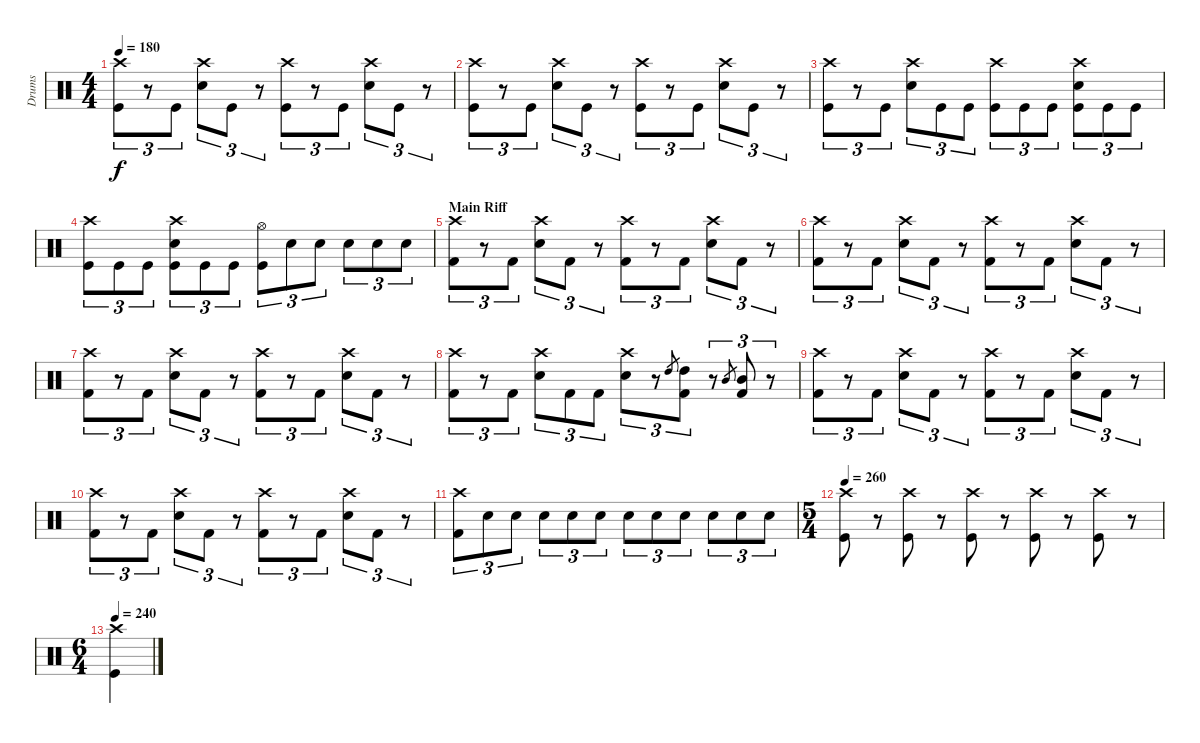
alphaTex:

\track ("Drums" "Drums") {instrument percussion}
\staff {score}
\articulation defaults
\ts (4 4)
\tempo 180
\clef neutral
\ks c
("Crash high (hit)" "Kick (hit)").8{tu (3 2) dy f} r.8{tu (3 2)} "Kick (hit)".8{tu (3 2)} ("Crash high (hit)" "Snare (hit) 2").8{tu (3 2)} "Kick (hit)".8{tu (3 2)} r.8{tu (3 2)} ("Crash high (hit)" "Kick (hit)").8{tu (3 2)} r.8{tu (3 2)} "Kick (hit)".8{tu (3 2)} ("Crash high (hit)" "Snare (hit) 2").8{tu (3 2)} "Kick (hit)".8{tu (3 2)} r.8{tu (3 2)} |
("Crash high (hit)" "Kick (hit)").8{tu (3 2)} r.8{tu (3 2)} "Kick (hit)".8{tu (3 2)} ("Crash high (hit)" "Snare (hit) 2").8{tu (3 2)} "Kick (hit)".8{tu (3 2)} r.8{tu (3 2)} ("Crash high (hit)" "Kick (hit)").8{tu (3 2)} r.8{tu (3 2)} "Kick (hit)".8{tu (3 2)} ("Crash high (hit)" "Snare (hit) 2").8{tu (3 2)} "Kick (hit)".8{tu (3 2)} r.8{tu (3 2)} |
("Crash high (hit)" "Kick (hit)").8{tu (3 2)} r.8{tu (3 2)} "Kick (hit)".8{tu (3 2)} ("Crash high (hit)" "Snare (hit) 2").8{tu (3 2)} "Kick (hit)".8{tu (3 2)} "Kick (hit)".8{tu (3 2)} ("Crash high (hit)" "Kick (hit)").8{tu (3 2)} "Kick (hit)".8{tu (3 2)} "Kick (hit)".8{tu (3 2)} ("Crash high (hit)" "Snare (hit) 2" "Kick (hit)").8{tu (3 2)} "Kick (hit)".8{tu (3 2)} "Kick (hit)".8{tu (3 2)} |
("Crash high (hit)" "Kick (hit)").8{tu (3 2)} "Kick (hit)".8{tu (3 2)} "Kick (hit)".8{tu (3 2)} ("Crash high (hit)" "Snare (hit) 2" "Kick (hit)").8{tu (3 2)} "Kick (hit)".8{tu (3 2)} "Kick (hit)".8{tu (3 2)} ("Hi-Hat (open)" "Kick (hit)").8{tu (3 2)} "Snare (hit) 2".8{tu (3 2)} "Snare (hit) 2".8{tu (3 2)} "Snare (hit) 2".8{tu (3 2)} "Snare (hit) 2".8{tu (3 2)} "Snare (hit) 2".8{tu (3 2)} |
\section ("" "Main Riff")
("Crash high (hit)" "Kick (hit) 2").8{tu (3 2)} r.8{tu (3 2)} "Kick (hit) 2".8{tu (3 2)} ("Crash high (hit)" "Electric Snare (hit)").8{tu (3 2)} "Kick (hit) 2".8{tu (3 2)} r.8{tu (3 2)} ("Crash high (hit)" "Kick (hit) 2").8{tu (3 2)} r.8{tu (3 2)} "Kick (hit) 2".8{tu (3 2)} ("Crash high (hit)" "Electric Snare (hit)").8{tu (3 2)} "Kick (hit) 2".8{tu (3 2)} r.8{tu (3 2)} |
("Crash high (hit)" "Kick (hit) 2").8{tu (3 2)} r.8{tu (3 2)} "Kick (hit) 2".8{tu (3 2)} ("Crash high (hit)" "Electric Snare (hit)").8{tu (3 2)} "Kick (hit) 2".8{tu (3 2)} r.8{tu (3 2)} ("Crash high (hit)" "Kick (hit) 2").8{tu (3 2)} r.8{tu (3 2)} "Kick (hit) 2".8{tu (3 2)} ("Crash high (hit)" "Electric Snare (hit)").8{tu (3 2)} "Kick (hit) 2".8{tu (3 2)} r.8{tu (3 2)} |
("Crash high (hit)" "Kick (hit) 2").8{tu (3 2)} r.8{tu (3 2)} "Kick (hit) 2".8{tu (3 2)} ("Crash high (hit)" "Electric Snare (hit)").8{tu (3 2)} "Kick (hit) 2".8{tu (3 2)} r.8{tu (3 2)} ("Crash high (hit)" "Kick (hit) 2").8{tu (3 2)} r.8{tu (3 2)} "Kick (hit) 2".8{tu (3 2)} ("Crash high (hit)" "Electric Snare (hit)").8{tu (3 2)} "Kick (hit) 2".8{tu (3 2)} r.8{tu (3 2)} |
("Crash high (hit)" "Kick (hit) 2").8{tu (3 2)} r.8{tu (3 2)} "Kick (hit) 2".8{tu (3 2)} ("Crash high (hit)" "Electric Snare (hit)").8{tu (3 2)} "Kick (hit) 2".8{tu (3 2)} "Kick (hit) 2".8{tu (3 2)} ("Crash high (hit)" "Electric Snare (hit)").8{tu (3 2)} r.8{tu (3 2)} "High Tom (hit)".8{gr} ("High Tom (hit)" "Kick (hit) 2").8{tu (3 2)} r.8{tu (3 2)} "Mid Tom (hit)".8{gr} ("Mid Tom (hit)" "Kick (hit) 2").8{tu (3 2)} r.8{tu (3 2)} |
("Crash high (hit)" "Kick (hit) 2").8{tu (3 2)} r.8{tu (3 2)} "Kick (hit) 2".8{tu (3 2)} ("Crash high (hit)" "Electric Snare (hit)").8{tu (3 2)} "Kick (hit) 2".8{tu (3 2)} r.8{tu (3 2)} ("Crash high (hit)" "Kick (hit) 2").8{tu (3 2)} r.8{tu (3 2)} "Kick (hit) 2".8{tu (3 2)} ("Crash high (hit)" "Electric Snare (hit)").8{tu (3 2)} "Kick (hit) 2".8{tu (3 2)} r.8{tu (3 2)} |
("Crash high (hit)" "Kick (hit) 2").8{tu (3 2)} r.8{tu (3 2)} "Kick (hit) 2".8{tu (3 2)} ("Crash high (hit)" "Electric Snare (hit)").8{tu (3 2)} "Kick (hit) 2".8{tu (3 2)} r.8{tu (3 2)} ("Crash high (hit)" "Kick (hit) 2").8{tu (3 2)} r.8{tu (3 2)} "Kick (hit) 2".8{tu (3 2)} ("Crash high (hit)" "Electric Snare (hit)").8{tu (3 2)} "Kick (hit) 2".8{tu (3 2)} r.8{tu (3 2)} |
("Crash high (hit)" "Kick (hit) 2").8{tu (3 2)} "Electric Snare (hit)".8{tu (3 2)} "Electric Snare (hit)".8{tu (3 2)} "Electric Snare (hit)".8{tu (3 2)} "Electric Snare (hit)".8{tu (3 2)} "Electric Snare (hit)".8{tu (3 2)} "Electric Snare (hit)".8{tu (3 2)} "Electric Snare (hit)".8{tu (3 2)} "Electric Snare (hit)".8{tu (3 2)} "Electric Snare (hit)".8{tu (3 2)} "Electric Snare (hit)".8{tu (3 2)} "Electric Snare (hit)".8{tu (3 2)} |
\ts (5 4)
\tempo 260
("Crash high (hit)" "Kick (hit)").8 r.8 ("Crash high (hit)" "Kick (hit)").8 r.8 ("Crash high (hit)" "Kick (hit)").8 r.8 ("Crash high (hit)" "Kick (hit)").8 r.8 ("Crash high (hit)" "Kick (hit)").8 r.8 |
\ts (6 4)
\tempo 240
("Crash high (hit)" "Kick (hit)").4
